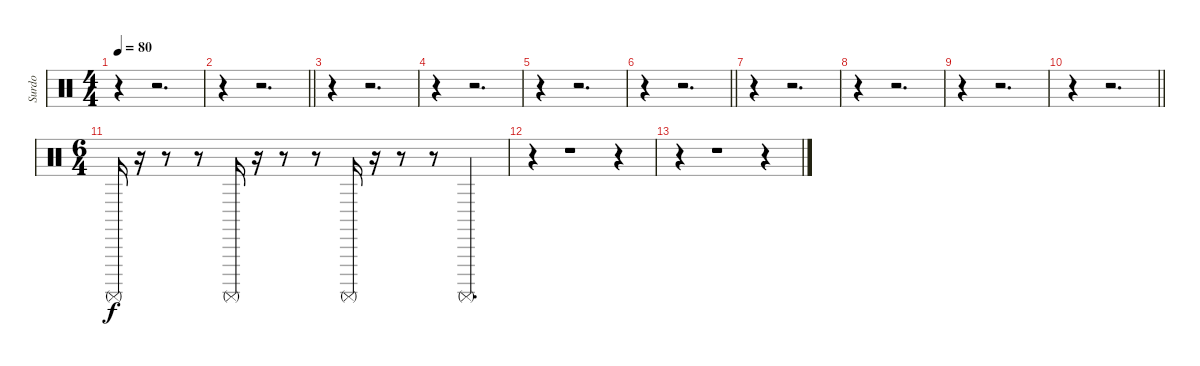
\track ("Surdo" "Surdo") {instrument percussion}
\staff {score}
\articulation defaults
\ts (4 4)
\tempo 80
\clef neutral
\ks c
r.4{dy f} r.2{d} |
\barLineRight lightlight
r.4 r.2{d} |
r.4 r.2{d} |
r.4 r.2{d} |
r.4 r.2{d} |
\barLineRight lightlight
r.4 r.2{d} |
r.4 r.2{d} |
r.4 r.2{d} |
r.4 r.2{d} |
\barLineRight lightlight
r.4 r.2{d} |
\ts (6 4)
"Surdo (mute)".16 r.16 r.8 r.8 "Surdo (mute)".16 r.16 r.8 r.8 "Surdo (mute)".16 r.16 r.8 r.8 "Surdo (mute)".4{d} |
r.4 r.1 r.4 |
r.4 r.1 r.4
